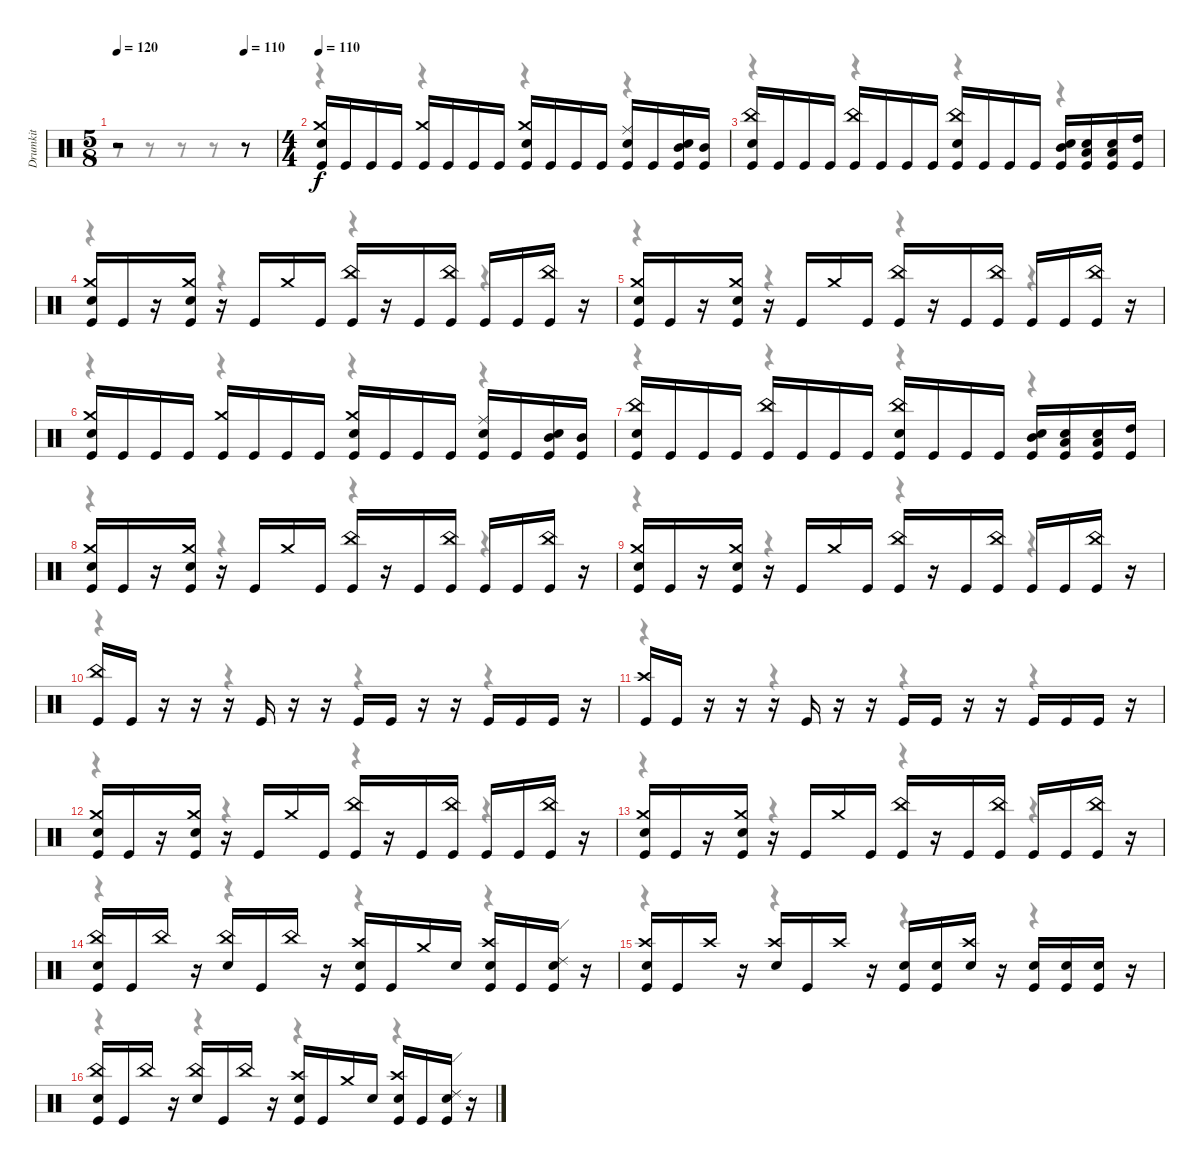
\track ("Drumkit" "Drumkit") {instrument percussion}
\staff {score}
\articulation defaults
\voice
\ts (5 8)
\tempo 120
\tempo (110 0.8)
\clef neutral
\ks c
r.2{dy f} r.8 |
\ts (4 4)
\tempo 110
("Crash medium (hit)" "Snare (hit) 2" "Kick (hit)").16 "Kick (hit)".16 "Kick (hit)".16 "Kick (hit)".16 ("Crash medium (hit)" "Kick (hit)").16 "Kick (hit)".16 "Kick (hit)".16 "Kick (hit)".16 ("Crash medium (hit)" "Snare (hit) 2" "Kick (hit)").16 "Kick (hit)".16 "Kick (hit)".16 "Kick (hit)".16 ("Ride (middle)" "Snare (hit) 2" "Kick (hit)").16 "Kick (hit)".16 ("Mid Tom (hit)" "Snare (hit) 2" "Kick (hit)").16 ("Mid Tom (hit)" "Kick (hit)").16 |
("China (hit)" "Snare (hit) 2" "Kick (hit)").16 "Kick (hit)".16 "Kick (hit)".16 "Kick (hit)".16 ("China (hit)" "Kick (hit)").16 "Kick (hit)".16 "Kick (hit)".16 "Kick (hit)".16 ("China (hit)" "Snare (hit) 2" "Kick (hit)").16 "Kick (hit)".16 "Kick (hit)".16 "Kick (hit)".16 ("Mid Tom (hit)" "Snare (hit) 2" "Kick (hit)").16 ("Low Tom (hit)" "Snare (hit) 2" "Kick (hit)").16 ("Low Floor Tom (hit)" "Snare (hit) 2" "Kick (hit)").16 ("High Tom (hit)" "Kick (hit)").16 |
("Crash medium (hit)" "Snare (hit) 2" "Kick (hit)").16 "Kick (hit)".16 r.16 ("Crash medium (hit)" "Snare (hit) 2" "Kick (hit)").16 r.16 "Kick (hit)".16 "Crash medium (hit)".16 "Kick (hit)".16 ("China (hit)" "Kick (hit)").16 r.16 "Kick (hit)".16 ("China (hit)" "Kick (hit)").16 "Kick (hit)".16 "Kick (hit)".16 ("China (hit)" "Kick (hit)").16 r.16 |
("Crash medium (hit)" "Snare (hit) 2" "Kick (hit)").16 "Kick (hit)".16 r.16 ("Crash medium (hit)" "Snare (hit) 2" "Kick (hit)").16 r.16 "Kick (hit)".16 "Crash medium (hit)".16 "Kick (hit)".16 ("China (hit)" "Kick (hit)").16 r.16 "Kick (hit)".16 ("China (hit)" "Kick (hit)").16 "Kick (hit)".16 "Kick (hit)".16 ("China (hit)" "Kick (hit)").16 r.16 |
("Crash medium (hit)" "Snare (hit) 2" "Kick (hit)").16 "Kick (hit)".16 "Kick (hit)".16 "Kick (hit)".16 ("Crash medium (hit)" "Kick (hit)").16 "Kick (hit)".16 "Kick (hit)".16 "Kick (hit)".16 ("Crash medium (hit)" "Snare (hit) 2" "Kick (hit)").16 "Kick (hit)".16 "Kick (hit)".16 "Kick (hit)".16 ("Ride (middle)" "Snare (hit) 2" "Kick (hit)").16 "Kick (hit)".16 ("Mid Tom (hit)" "Snare (hit) 2" "Kick (hit)").16 ("Mid Tom (hit)" "Kick (hit)").16 |
("China (hit)" "Snare (hit) 2" "Kick (hit)").16 "Kick (hit)".16 "Kick (hit)".16 "Kick (hit)".16 ("China (hit)" "Kick (hit)").16 "Kick (hit)".16 "Kick (hit)".16 "Kick (hit)".16 ("China (hit)" "Snare (hit) 2" "Kick (hit)").16 "Kick (hit)".16 "Kick (hit)".16 "Kick (hit)".16 ("Mid Tom (hit)" "Snare (hit) 2" "Kick (hit)").16 ("Low Tom (hit)" "Snare (hit) 2" "Kick (hit)").16 ("Low Floor Tom (hit)" "Snare (hit) 2" "Kick (hit)").16 ("High Tom (hit)" "Kick (hit)").16 |
("Crash medium (hit)" "Snare (hit) 2" "Kick (hit)").16 "Kick (hit)".16 r.16 ("Crash medium (hit)" "Snare (hit) 2" "Kick (hit)").16 r.16 "Kick (hit)".16 "Crash medium (hit)".16 "Kick (hit)".16 ("China (hit)" "Kick (hit)").16 r.16 "Kick (hit)".16 ("China (hit)" "Kick (hit)").16 "Kick (hit)".16 "Kick (hit)".16 ("China (hit)" "Kick (hit)").16 r.16 |
("Crash medium (hit)" "Snare (hit) 2" "Kick (hit)").16 "Kick (hit)".16 r.16 ("Crash medium (hit)" "Snare (hit) 2" "Kick (hit)").16 r.16 "Kick (hit)".16 "Crash medium (hit)".16 "Kick (hit)".16 ("China (hit)" "Kick (hit)").16 r.16 "Kick (hit)".16 ("China (hit)" "Kick (hit)").16 "Kick (hit)".16 "Kick (hit)".16 ("China (hit)" "Kick (hit)").16 r.16 |
("China (hit)" "Kick (hit)").16 "Kick (hit)".16 r.16 r.16 r.16 "Kick (hit)".16 r.16 r.16 "Kick (hit)".16 "Kick (hit)".16 r.16 r.16 "Kick (hit)".16 "Kick (hit)".16 "Kick (hit)".16 r.16 |
("Crash high (hit)" "Kick (hit)").16 "Kick (hit)".16 r.16 r.16 r.16 "Kick (hit)".16 r.16 r.16 "Kick (hit)".16 "Kick (hit)".16 r.16 r.16 "Kick (hit)".16 "Kick (hit)".16 "Kick (hit)".16 r.16 |
("Crash medium (hit)" "Snare (hit) 2" "Kick (hit)").16 "Kick (hit)".16 r.16 ("Crash medium (hit)" "Snare (hit) 2" "Kick (hit)").16 r.16 "Kick (hit)".16 "Crash medium (hit)".16 "Kick (hit)".16 ("China (hit)" "Kick (hit)").16 r.16 "Kick (hit)".16 ("China (hit)" "Kick (hit)").16 "Kick (hit)".16 "Kick (hit)".16 ("China (hit)" "Kick (hit)").16 r.16 |
("Crash medium (hit)" "Snare (hit) 2" "Kick (hit)").16 "Kick (hit)".16 r.16 ("Crash medium (hit)" "Snare (hit) 2" "Kick (hit)").16 r.16 "Kick (hit)".16 "Crash medium (hit)".16 "Kick (hit)".16 ("China (hit)" "Kick (hit)").16 r.16 "Kick (hit)".16 ("China (hit)" "Kick (hit)").16 "Kick (hit)".16 "Kick (hit)".16 ("China (hit)" "Kick (hit)").16 r.16 |
("China (hit)" "Snare (hit) 2" "Kick (hit)").16 "Kick (hit)".16 "China (hit)".16 r.16 ("China (hit)" "Snare (hit) 2").16 "Kick (hit)".16 "China (hit)".16 r.16 ("Crash high (hit)" "Snare (hit) 2" "Kick (hit)").16 "Kick (hit)".16 "Crash medium (hit)".16 "Snare (hit) 2".16 ("Crash high (hit)" "Snare (hit) 2" "Kick (hit)").16 "Kick (hit)".16 ("Ride (edge) 2" "Snare (hit) 2" "Kick (hit)").16 r.16 |
("Crash high (hit)" "Snare (hit) 2" "Kick (hit)").16 "Kick (hit)".16 "Crash high (hit)".16 r.16 ("Crash high (hit)" "Snare (hit) 2").16 "Kick (hit)".16 "Crash high (hit)".16 r.16 ("Snare (hit) 2" "Kick (hit)").16 ("Snare (hit) 2" "Kick (hit)").16 ("Crash high (hit)" "Snare (hit) 2").16 r.16 ("Snare (hit) 2" "Kick (hit)").16 ("Snare (hit) 2" "Kick (hit)").16 ("Snare (hit) 2" "Kick (hit)").16 r.16 |
("China (hit)" "Snare (hit) 2" "Kick (hit)").16 "Kick (hit)".16 "China (hit)".16 r.16 ("China (hit)" "Snare (hit) 2").16 "Kick (hit)".16 "China (hit)".16 r.16 ("Crash high (hit)" "Snare (hit) 2" "Kick (hit)").16 "Kick (hit)".16 "Crash medium (hit)".16 "Snare (hit) 2".16 ("Crash high (hit)" "Snare (hit) 2" "Kick (hit)").16 "Kick (hit)".16 ("Ride (edge) 2" "Snare (hit) 2" "Kick (hit)").16 r.16
\voice
\clef neutral
\ottava regular
\simile none
\ks c
r.8{dy f} r.8 r.8 r.8 r.8 |
r.4 r.4 r.4 r.4 |
r.4 r.4 r.4 r.4 |
r.4 r.4 r.4 r.4 |
r.4 r.4 r.4 r.4 |
r.4 r.4 r.4 r.4 |
r.4 r.4 r.4 r.4 |
r.4 r.4 r.4 r.4 |
r.4 r.4 r.4 r.4 |
r.4 r.4 r.4 r.4 |
r.4 r.4 r.4 r.4 |
r.4 r.4 r.4 r.4 |
r.4 r.4 r.4 r.4 |
r.4 r.4 r.4 r.4 |
r.4 r.4 r.4 r.4 |
r.4 r.4 r.4 r.4
